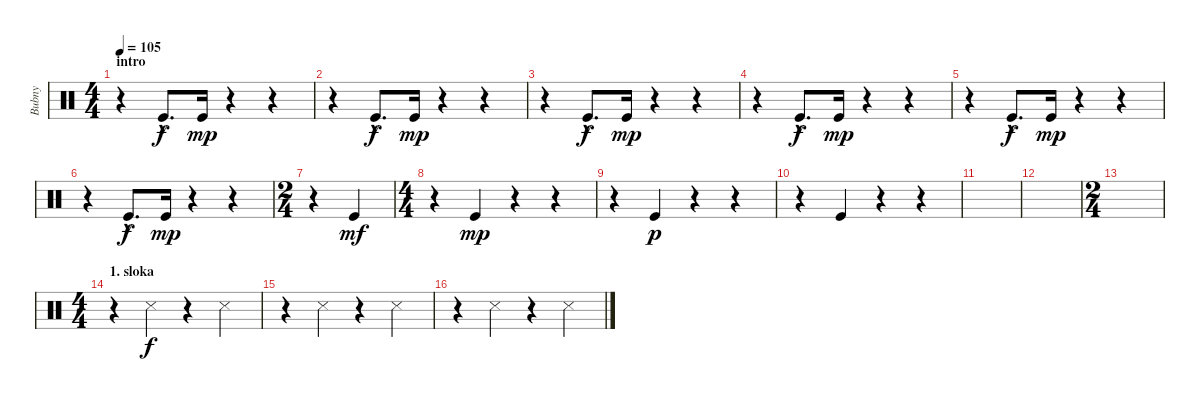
\track ("Bubny" "Bubny") {instrument percussion}
\staff {score}
\articulation defaults
\ts (4 4)
\section ("" "intro")
\tempo 105
\clef neutral
\ks c
r.4{dy f} "Kick (hit)"{hac}.8{d} "Kick (hit)".16{dy mp} r.4 r.4 |
r.4 "Kick (hit)"{hac}.8{d dy f} "Kick (hit)".16{dy mp} r.4 r.4 |
r.4 "Kick (hit)"{hac}.8{d dy f} "Kick (hit)".16{dy mp} r.4 r.4 |
r.4 "Kick (hit)"{hac}.8{d dy f} "Kick (hit)".16{dy mp} r.4 r.4 |
r.4 "Kick (hit)"{hac}.8{d dy f} "Kick (hit)".16{dy mp} r.4 r.4 |
r.4 "Kick (hit)"{hac}.8{d dy f} "Kick (hit)".16{dy mp} r.4 r.4 |
\ts (2 4)
r.4 "Kick (hit)".4{dy mf} |
\ts (4 4)
r.4 "Kick (hit)".4{dy mp} r.4 r.4 |
r.4 "Kick (hit)".4{dy p} r.4 r.4 |
r.4 "Kick (hit)".4 r.4 r.4 |
|
|
\ts (2 4)
|
\ts (4 4)
\section ("" "1. sloka")
r.4{volume 16} "Snare (side stick) 3".4{dy f} r.4 "Snare (side stick) 3".4 |
r.4 "Snare (side stick) 3".4 r.4 "Snare (side stick) 3".4 |
r.4 "Snare (side stick) 3".4 r.4 "Snare (side stick) 3".4
